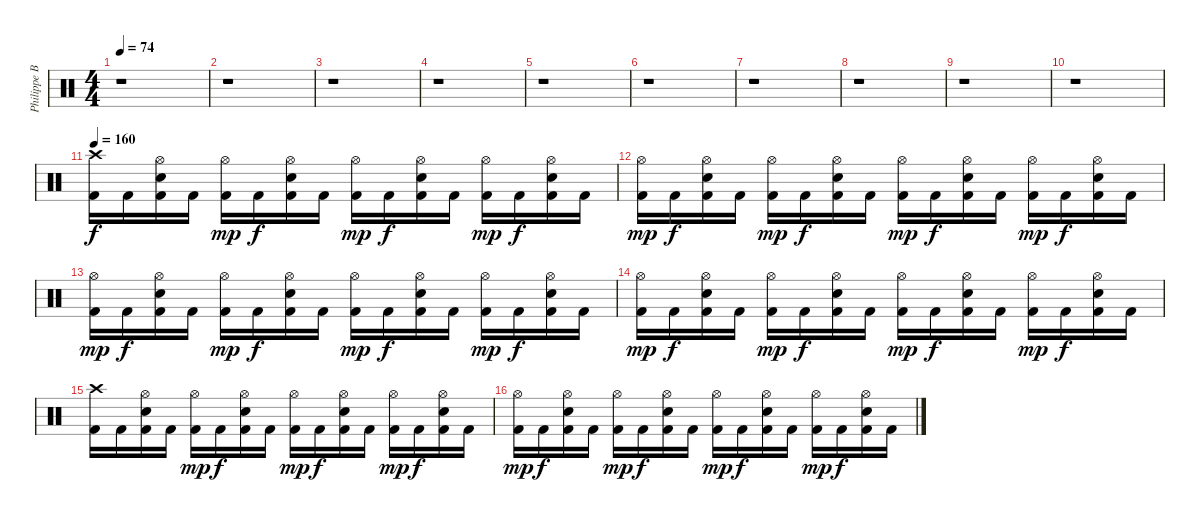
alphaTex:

\track ("Philippe Borda" "Philippe B") {instrument percussion}
\staff {score}
\articulation defaults
\ts (4 4)
\tempo 74
\clef neutral
\ks c
r.1{dy f} |
r.1 |
r.1 |
r.1 |
r.1 |
r.1 |
r.1 |
r.1 |
r.1 |
r.1 |
\tempo 160
("Kick (hit) 2" "Crash high (hit)").16 "Kick (hit) 2".16 ("Kick (hit) 2" "Snare (hit) 2" "Hi-Hat (open)").16 "Kick (hit) 2".16 ("Kick (hit) 2" "Hi-Hat (open)").16{dy mp} "Kick (hit) 2".16{dy f} ("Kick (hit) 2" "Snare (hit) 2" "Hi-Hat (open)").16 "Kick (hit) 2".16 ("Kick (hit) 2" "Hi-Hat (open)").16{dy mp} "Kick (hit) 2".16{dy f} ("Kick (hit) 2" "Snare (hit) 2" "Hi-Hat (open)").16 "Kick (hit) 2".16 ("Kick (hit) 2" "Hi-Hat (open)").16{dy mp} "Kick (hit) 2".16{dy f} ("Kick (hit) 2" "Snare (hit) 2" "Hi-Hat (open)").16 "Kick (hit) 2".16 |
("Kick (hit) 2" "Hi-Hat (open)").16{dy mp} "Kick (hit) 2".16{dy f} ("Kick (hit) 2" "Snare (hit) 2" "Hi-Hat (open)").16 "Kick (hit) 2".16 ("Kick (hit) 2" "Hi-Hat (open)").16{dy mp} "Kick (hit) 2".16{dy f} ("Kick (hit) 2" "Snare (hit) 2" "Hi-Hat (open)").16 "Kick (hit) 2".16 ("Kick (hit) 2" "Hi-Hat (open)").16{dy mp} "Kick (hit) 2".16{dy f} ("Kick (hit) 2" "Snare (hit) 2" "Hi-Hat (open)").16 "Kick (hit) 2".16 ("Kick (hit) 2" "Hi-Hat (open)").16{dy mp} "Kick (hit) 2".16{dy f} ("Kick (hit) 2" "Snare (hit) 2" "Hi-Hat (open)").16 "Kick (hit) 2".16 |
("Kick (hit) 2" "Hi-Hat (open)").16{dy mp} "Kick (hit) 2".16{dy f} ("Kick (hit) 2" "Snare (hit) 2" "Hi-Hat (open)").16 "Kick (hit) 2".16 ("Kick (hit) 2" "Hi-Hat (open)").16{dy mp} "Kick (hit) 2".16{dy f} ("Kick (hit) 2" "Snare (hit) 2" "Hi-Hat (open)").16 "Kick (hit) 2".16 ("Kick (hit) 2" "Hi-Hat (open)").16{dy mp} "Kick (hit) 2".16{dy f} ("Kick (hit) 2" "Snare (hit) 2" "Hi-Hat (open)").16 "Kick (hit) 2".16 ("Kick (hit) 2" "Hi-Hat (open)").16{dy mp} "Kick (hit) 2".16{dy f} ("Kick (hit) 2" "Snare (hit) 2" "Hi-Hat (open)").16 "Kick (hit) 2".16 |
("Kick (hit) 2" "Hi-Hat (open)").16{dy mp} "Kick (hit) 2".16{dy f} ("Kick (hit) 2" "Snare (hit) 2" "Hi-Hat (open)").16 "Kick (hit) 2".16 ("Kick (hit) 2" "Hi-Hat (open)").16{dy mp} "Kick (hit) 2".16{dy f} ("Kick (hit) 2" "Snare (hit) 2" "Hi-Hat (open)").16 "Kick (hit) 2".16 ("Kick (hit) 2" "Hi-Hat (open)").16{dy mp} "Kick (hit) 2".16{dy f} ("Kick (hit) 2" "Snare (hit) 2" "Hi-Hat (open)").16 "Kick (hit) 2".16 ("Kick (hit) 2" "Hi-Hat (open)").16{dy mp} "Kick (hit) 2".16{dy f} ("Kick (hit) 2" "Snare (hit) 2" "Hi-Hat (open)").16 "Kick (hit) 2".16 |
("Kick (hit) 2" "Crash high (hit)").16 "Kick (hit) 2".16 ("Kick (hit) 2" "Snare (hit) 2" "Hi-Hat (open)").16 "Kick (hit) 2".16 ("Kick (hit) 2" "Hi-Hat (open)").16{dy mp} "Kick (hit) 2".16{dy f} ("Kick (hit) 2" "Snare (hit) 2" "Hi-Hat (open)").16 "Kick (hit) 2".16 ("Kick (hit) 2" "Hi-Hat (open)").16{dy mp} "Kick (hit) 2".16{dy f} ("Kick (hit) 2" "Snare (hit) 2" "Hi-Hat (open)").16 "Kick (hit) 2".16 ("Kick (hit) 2" "Hi-Hat (open)").16{dy mp} "Kick (hit) 2".16{dy f} ("Kick (hit) 2" "Snare (hit) 2" "Hi-Hat (open)").16 "Kick (hit) 2".16 |
("Kick (hit) 2" "Hi-Hat (open)").16{dy mp} "Kick (hit) 2".16{dy f} ("Kick (hit) 2" "Snare (hit) 2" "Hi-Hat (open)").16 "Kick (hit) 2".16 ("Kick (hit) 2" "Hi-Hat (open)").16{dy mp} "Kick (hit) 2".16{dy f} ("Kick (hit) 2" "Snare (hit) 2" "Hi-Hat (open)").16 "Kick (hit) 2".16 ("Kick (hit) 2" "Hi-Hat (open)").16{dy mp} "Kick (hit) 2".16{dy f} ("Kick (hit) 2" "Snare (hit) 2" "Hi-Hat (open)").16 "Kick (hit) 2".16 ("Kick (hit) 2" "Hi-Hat (open)").16{dy mp} "Kick (hit) 2".16{dy f} ("Kick (hit) 2" "Snare (hit) 2" "Hi-Hat (open)").16 "Kick (hit) 2".16
